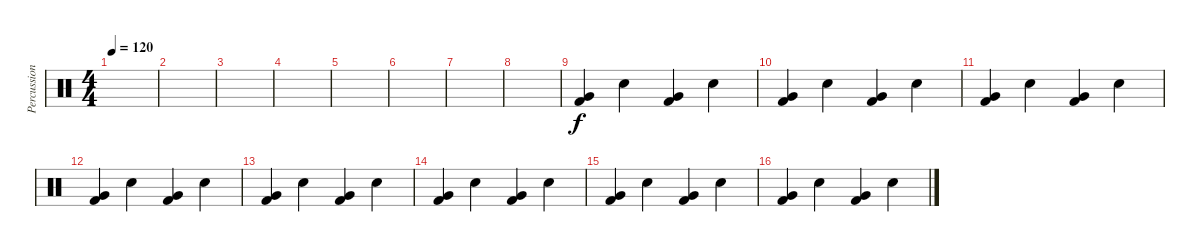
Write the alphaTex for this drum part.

\track ("Percussions" "Percussion") {instrument percussion}
\staff {score}
\articulation defaults
\ts (4 4)
\tempo 120
\clef neutral
\ks c
|
|
|
|
|
|
|
|
("Very Low Tom (hit)" "Kick (hit) 2").4 "Snare (hit) 2".4 ("Very Low Tom (hit)" "Kick (hit) 2").4 "Snare (hit) 2".4 |
("Very Low Tom (hit)" "Kick (hit) 2").4 "Snare (hit) 2".4 ("Very Low Tom (hit)" "Kick (hit) 2").4 "Snare (hit) 2".4 |
("Very Low Tom (hit)" "Kick (hit) 2").4 "Snare (hit) 2".4 ("Very Low Tom (hit)" "Kick (hit) 2").4 "Snare (hit) 2".4 |
("Very Low Tom (hit)" "Kick (hit) 2").4 "Snare (hit) 2".4 ("Very Low Tom (hit)" "Kick (hit) 2").4 "Snare (hit) 2".4 |
("Very Low Tom (hit)" "Kick (hit) 2").4 "Snare (hit) 2".4 ("Very Low Tom (hit)" "Kick (hit) 2").4 "Snare (hit) 2".4 |
("Very Low Tom (hit)" "Kick (hit) 2").4 "Snare (hit) 2".4 ("Very Low Tom (hit)" "Kick (hit) 2").4 "Snare (hit) 2".4 |
("Very Low Tom (hit)" "Kick (hit) 2").4 "Snare (hit) 2".4 ("Very Low Tom (hit)" "Kick (hit) 2").4 "Snare (hit) 2".4 |
("Very Low Tom (hit)" "Kick (hit) 2").4 "Snare (hit) 2".4 ("Very Low Tom (hit)" "Kick (hit) 2").4 "Snare (hit) 2".4
